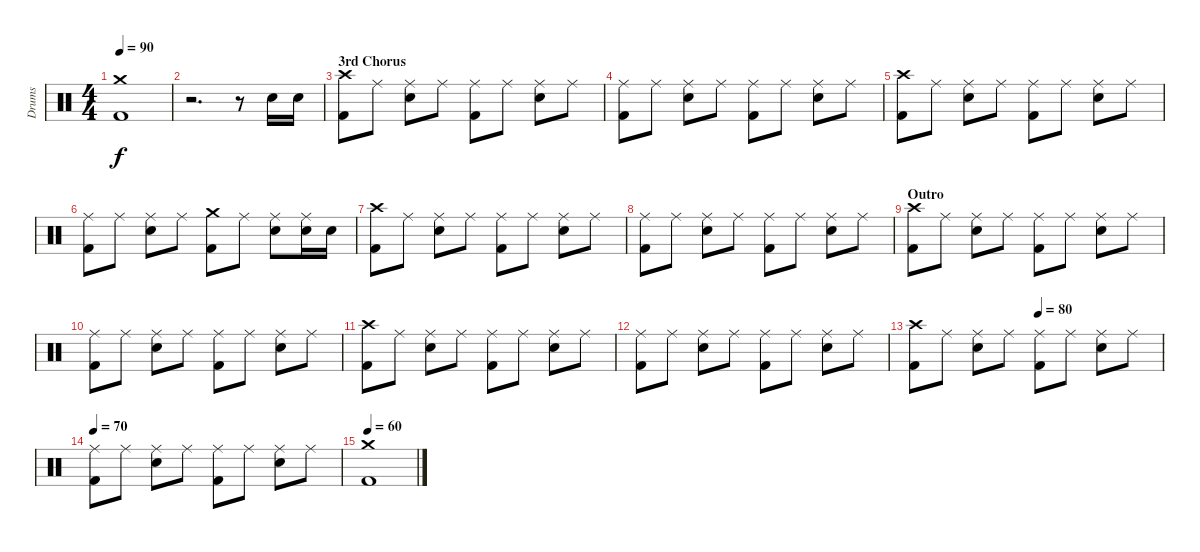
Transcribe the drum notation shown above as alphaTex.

\track ("Drums" "Drums") {instrument percussion}
\staff {score}
\articulation defaults
\ts (4 4)
\tempo 90
\clef neutral
\ks c
("Crash medium (hit)" "Kick (hit) 2").1{dy f} |
r.2{d} r.8 "Snare (hit) 2".16 "Snare (hit) 2".16 |
\section ("" "3rd Chorus")
("Crash high (hit)" "Kick (hit) 2").8 "Ride (middle)".8 ("Ride (middle)" "Snare (hit) 2").8 "Ride (middle)".8 ("Ride (middle)" "Kick (hit) 2").8 "Ride (middle)".8 ("Ride (middle)" "Snare (hit) 2").8 "Ride (middle)".8 |
("Ride (middle)" "Kick (hit) 2").8 "Ride (middle)".8 ("Ride (middle)" "Snare (hit) 2").8 "Ride (middle)".8 ("Ride (middle)" "Kick (hit) 2").8 "Ride (middle)".8 ("Ride (middle)" "Snare (hit) 2").8 "Ride (middle)".8 |
("Crash high (hit)" "Kick (hit) 2").8 "Ride (middle)".8 ("Ride (middle)" "Snare (hit) 2").8 "Ride (middle)".8 ("Ride (middle)" "Kick (hit) 2").8 "Ride (middle)".8 ("Ride (middle)" "Snare (hit) 2").8 "Ride (middle)".8 |
("Ride (middle)" "Kick (hit) 2").8 "Ride (middle)".8 ("Ride (middle)" "Snare (hit) 2").8 "Ride (middle)".8 ("Crash medium (hit)" "Kick (hit) 2").8 "Ride (middle)".8 ("Ride (middle)" "Snare (hit) 2").8 ("Ride (middle)" "Snare (hit) 2").16 "Snare (hit) 2".16 |
("Crash high (hit)" "Kick (hit) 2").8 "Ride (middle)".8 ("Ride (middle)" "Snare (hit) 2").8 "Ride (middle)".8 ("Ride (middle)" "Kick (hit) 2").8 "Ride (middle)".8 ("Ride (middle)" "Snare (hit) 2").8 "Ride (middle)".8 |
("Ride (middle)" "Kick (hit) 2").8 "Ride (middle)".8 ("Ride (middle)" "Snare (hit) 2").8 "Ride (middle)".8 ("Ride (middle)" "Kick (hit) 2").8 "Ride (middle)".8 ("Ride (middle)" "Snare (hit) 2").8 "Ride (middle)".8 |
\section ("" "Outro")
("Crash high (hit)" "Kick (hit) 2").8 "Ride (middle)".8 ("Ride (middle)" "Snare (hit) 2").8 "Ride (middle)".8 ("Ride (middle)" "Kick (hit) 2").8 "Ride (middle)".8 ("Ride (middle)" "Snare (hit) 2").8 "Ride (middle)".8 |
("Ride (middle)" "Kick (hit) 2").8 "Ride (middle)".8 ("Ride (middle)" "Snare (hit) 2").8 "Ride (middle)".8 ("Ride (middle)" "Kick (hit) 2").8 "Ride (middle)".8 ("Ride (middle)" "Snare (hit) 2").8 "Ride (middle)".8 |
("Crash high (hit)" "Kick (hit) 2").8 "Ride (middle)".8 ("Ride (middle)" "Snare (hit) 2").8 "Ride (middle)".8 ("Ride (middle)" "Kick (hit) 2").8 "Ride (middle)".8 ("Ride (middle)" "Snare (hit) 2").8 "Ride (middle)".8 |
("Ride (middle)" "Kick (hit) 2").8 "Ride (middle)".8 ("Ride (middle)" "Snare (hit) 2").8 "Ride (middle)".8 ("Ride (middle)" "Kick (hit) 2").8 "Ride (middle)".8 ("Ride (middle)" "Snare (hit) 2").8 "Ride (middle)".8 |
\tempo (80 0.5)
("Crash high (hit)" "Kick (hit) 2").8 "Ride (middle)".8 ("Ride (middle)" "Snare (hit) 2").8 "Ride (middle)".8 ("Ride (middle)" "Kick (hit) 2").8 "Ride (middle)".8 ("Ride (middle)" "Snare (hit) 2").8 "Ride (middle)".8 |
\tempo 70
("Ride (middle)" "Kick (hit) 2").8 "Ride (middle)".8 ("Ride (middle)" "Snare (hit) 2").8 "Ride (middle)".8 ("Ride (middle)" "Kick (hit) 2").8 "Ride (middle)".8 ("Ride (middle)" "Snare (hit) 2").8 "Ride (middle)".8 |
\tempo 60
("Crash medium (hit)" "Kick (hit) 2").1
